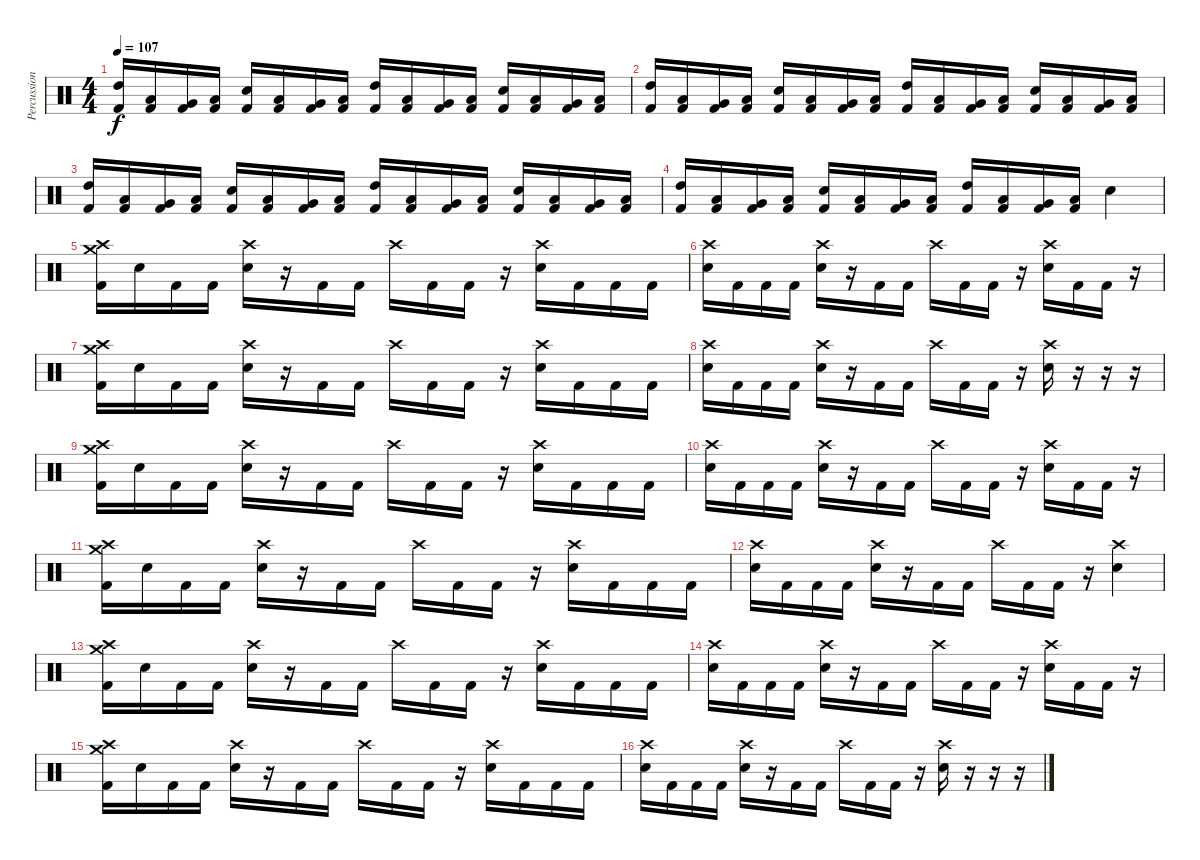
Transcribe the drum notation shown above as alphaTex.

\track ("Percussion" "Percussion") {instrument percussion}
\staff {score}
\articulation defaults
\ts (4 4)
\tempo 107
\clef neutral
\ks c
("High Tom (hit)" "Kick (hit) 2").16{dy f} ("Low Tom (hit)" "Kick (hit) 2").16 ("Very Low Tom (hit)" "Kick (hit) 2").16 ("Low Floor Tom (hit)" "Kick (hit) 2").16 ("Electric Snare (hit)" "Kick (hit) 2").16 ("Low Tom (hit)" "Kick (hit) 2").16 ("Very Low Tom (hit)" "Kick (hit) 2").16 ("Low Floor Tom (hit)" "Kick (hit) 2").16 ("High Tom (hit)" "Kick (hit) 2").16 ("Low Tom (hit)" "Kick (hit) 2").16 ("Very Low Tom (hit)" "Kick (hit) 2").16 ("Low Floor Tom (hit)" "Kick (hit) 2").16 ("Electric Snare (hit)" "Kick (hit) 2").16 ("Low Tom (hit)" "Kick (hit) 2").16 ("Very Low Tom (hit)" "Kick (hit) 2").16 ("Low Floor Tom (hit)" "Kick (hit) 2").16 |
("High Tom (hit)" "Kick (hit) 2").16 ("Low Tom (hit)" "Kick (hit) 2").16 ("Very Low Tom (hit)" "Kick (hit) 2").16 ("Low Floor Tom (hit)" "Kick (hit) 2").16 ("Electric Snare (hit)" "Kick (hit) 2").16 ("Low Tom (hit)" "Kick (hit) 2").16 ("Very Low Tom (hit)" "Kick (hit) 2").16 ("Low Floor Tom (hit)" "Kick (hit) 2").16 ("High Tom (hit)" "Kick (hit) 2").16 ("Low Tom (hit)" "Kick (hit) 2").16 ("Very Low Tom (hit)" "Kick (hit) 2").16 ("Low Floor Tom (hit)" "Kick (hit) 2").16 ("Electric Snare (hit)" "Kick (hit) 2").16 ("Low Tom (hit)" "Kick (hit) 2").16 ("Very Low Tom (hit)" "Kick (hit) 2").16 ("Low Floor Tom (hit)" "Kick (hit) 2").16 |
("High Tom (hit)" "Kick (hit) 2").16 ("Low Tom (hit)" "Kick (hit) 2").16 ("Very Low Tom (hit)" "Kick (hit) 2").16 ("Low Floor Tom (hit)" "Kick (hit) 2").16 ("Electric Snare (hit)" "Kick (hit) 2").16 ("Low Tom (hit)" "Kick (hit) 2").16 ("Very Low Tom (hit)" "Kick (hit) 2").16 ("Low Floor Tom (hit)" "Kick (hit) 2").16 ("High Tom (hit)" "Kick (hit) 2").16 ("Low Tom (hit)" "Kick (hit) 2").16 ("Very Low Tom (hit)" "Kick (hit) 2").16 ("Low Floor Tom (hit)" "Kick (hit) 2").16 ("Electric Snare (hit)" "Kick (hit) 2").16 ("Low Tom (hit)" "Kick (hit) 2").16 ("Very Low Tom (hit)" "Kick (hit) 2").16 ("Low Floor Tom (hit)" "Kick (hit) 2").16 |
("High Tom (hit)" "Kick (hit) 2").16 ("Low Tom (hit)" "Kick (hit) 2").16 ("Very Low Tom (hit)" "Kick (hit) 2").16 ("Low Floor Tom (hit)" "Kick (hit) 2").16 ("Electric Snare (hit)" "Kick (hit) 2").16 ("Low Tom (hit)" "Kick (hit) 2").16 ("Very Low Tom (hit)" "Kick (hit) 2").16 ("Low Floor Tom (hit)" "Kick (hit) 2").16 ("High Tom (hit)" "Kick (hit) 2").16 ("Low Tom (hit)" "Kick (hit) 2").16 ("Very Low Tom (hit)" "Kick (hit) 2").16 ("Low Floor Tom (hit)" "Kick (hit) 2").16 "Electric Snare (hit)".4 |
("Crash high (hit)" "Crash medium (hit)" "Kick (hit) 2").16 "Electric Snare (hit)".16 "Kick (hit) 2".16 "Kick (hit) 2".16 ("Crash high (hit)" "Electric Snare (hit)").16 r.16 "Kick (hit) 2".16 "Kick (hit) 2".16 "Crash high (hit)".16 "Kick (hit) 2".16 "Kick (hit) 2".16 r.16 ("Crash high (hit)" "Electric Snare (hit)").16 "Kick (hit) 2".16 "Kick (hit) 2".16 "Kick (hit) 2".16 |
("Crash high (hit)" "Electric Snare (hit)").16 "Kick (hit) 2".16 "Kick (hit) 2".16 "Kick (hit) 2".16 ("Crash high (hit)" "Electric Snare (hit)").16 r.16 "Kick (hit) 2".16 "Kick (hit) 2".16 "Crash high (hit)".16 "Kick (hit) 2".16 "Kick (hit) 2".16 r.16 ("Crash high (hit)" "Electric Snare (hit)").16 "Kick (hit) 2".16 "Kick (hit) 2".16 r.16 |
("Crash high (hit)" "Crash medium (hit)" "Kick (hit) 2").16 "Electric Snare (hit)".16 "Kick (hit) 2".16 "Kick (hit) 2".16 ("Crash high (hit)" "Electric Snare (hit)").16 r.16 "Kick (hit) 2".16 "Kick (hit) 2".16 "Crash high (hit)".16 "Kick (hit) 2".16 "Kick (hit) 2".16 r.16 ("Crash high (hit)" "Electric Snare (hit)").16 "Kick (hit) 2".16 "Kick (hit) 2".16 "Kick (hit) 2".16 |
("Crash high (hit)" "Electric Snare (hit)").16 "Kick (hit) 2".16 "Kick (hit) 2".16 "Kick (hit) 2".16 ("Crash high (hit)" "Electric Snare (hit)").16 r.16 "Kick (hit) 2".16 "Kick (hit) 2".16 "Crash high (hit)".16 "Kick (hit) 2".16 "Kick (hit) 2".16 r.16 ("Crash high (hit)" "Electric Snare (hit)").16 r.16 r.16 r.16 |
("Crash high (hit)" "Crash medium (hit)" "Kick (hit) 2").16 "Electric Snare (hit)".16 "Kick (hit) 2".16 "Kick (hit) 2".16 ("Crash high (hit)" "Electric Snare (hit)").16 r.16 "Kick (hit) 2".16 "Kick (hit) 2".16 "Crash high (hit)".16 "Kick (hit) 2".16 "Kick (hit) 2".16 r.16 ("Crash high (hit)" "Electric Snare (hit)").16 "Kick (hit) 2".16 "Kick (hit) 2".16 "Kick (hit) 2".16 |
("Crash high (hit)" "Electric Snare (hit)").16 "Kick (hit) 2".16 "Kick (hit) 2".16 "Kick (hit) 2".16 ("Crash high (hit)" "Electric Snare (hit)").16 r.16 "Kick (hit) 2".16 "Kick (hit) 2".16 "Crash high (hit)".16 "Kick (hit) 2".16 "Kick (hit) 2".16 r.16 ("Crash high (hit)" "Electric Snare (hit)").16 "Kick (hit) 2".16 "Kick (hit) 2".16 r.16 |
("Crash high (hit)" "Crash medium (hit)" "Kick (hit) 2").16 "Electric Snare (hit)".16 "Kick (hit) 2".16 "Kick (hit) 2".16 ("Crash high (hit)" "Electric Snare (hit)").16 r.16 "Kick (hit) 2".16 "Kick (hit) 2".16 "Crash high (hit)".16 "Kick (hit) 2".16 "Kick (hit) 2".16 r.16 ("Crash high (hit)" "Electric Snare (hit)").16 "Kick (hit) 2".16 "Kick (hit) 2".16 "Kick (hit) 2".16 |
("Crash high (hit)" "Electric Snare (hit)").16 "Kick (hit) 2".16 "Kick (hit) 2".16 "Kick (hit) 2".16 ("Crash high (hit)" "Electric Snare (hit)").16 r.16 "Kick (hit) 2".16 "Kick (hit) 2".16 "Crash high (hit)".16 "Kick (hit) 2".16 "Kick (hit) 2".16 r.16 ("Crash high (hit)" "Electric Snare (hit)").4 |
("Crash high (hit)" "Crash medium (hit)" "Kick (hit) 2").16 "Electric Snare (hit)".16 "Kick (hit) 2".16 "Kick (hit) 2".16 ("Crash high (hit)" "Electric Snare (hit)").16 r.16 "Kick (hit) 2".16 "Kick (hit) 2".16 "Crash high (hit)".16 "Kick (hit) 2".16 "Kick (hit) 2".16 r.16 ("Crash high (hit)" "Electric Snare (hit)").16 "Kick (hit) 2".16 "Kick (hit) 2".16 "Kick (hit) 2".16 |
("Crash high (hit)" "Electric Snare (hit)").16 "Kick (hit) 2".16 "Kick (hit) 2".16 "Kick (hit) 2".16 ("Crash high (hit)" "Electric Snare (hit)").16 r.16 "Kick (hit) 2".16 "Kick (hit) 2".16 "Crash high (hit)".16 "Kick (hit) 2".16 "Kick (hit) 2".16 r.16 ("Crash high (hit)" "Electric Snare (hit)").16 "Kick (hit) 2".16 "Kick (hit) 2".16 r.16 |
("Crash high (hit)" "Crash medium (hit)" "Kick (hit) 2").16 "Electric Snare (hit)".16 "Kick (hit) 2".16 "Kick (hit) 2".16 ("Crash high (hit)" "Electric Snare (hit)").16 r.16 "Kick (hit) 2".16 "Kick (hit) 2".16 "Crash high (hit)".16 "Kick (hit) 2".16 "Kick (hit) 2".16 r.16 ("Crash high (hit)" "Electric Snare (hit)").16 "Kick (hit) 2".16 "Kick (hit) 2".16 "Kick (hit) 2".16 |
("Crash high (hit)" "Electric Snare (hit)").16 "Kick (hit) 2".16 "Kick (hit) 2".16 "Kick (hit) 2".16 ("Crash high (hit)" "Electric Snare (hit)").16 r.16 "Kick (hit) 2".16 "Kick (hit) 2".16 "Crash high (hit)".16 "Kick (hit) 2".16 "Kick (hit) 2".16 r.16 ("Crash high (hit)" "Electric Snare (hit)").16 r.16 r.16 r.16
